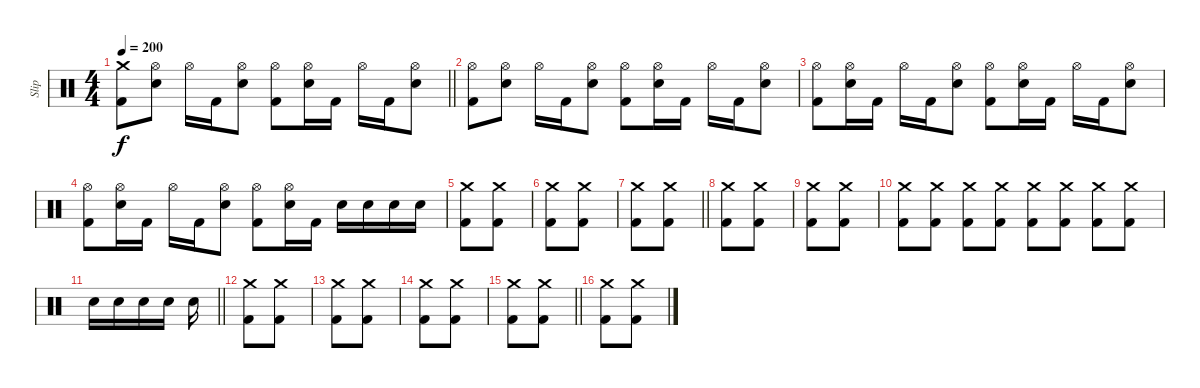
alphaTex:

\track ("Slip" "Slip") {instrument percussion}
\staff {score}
\articulation defaults
\ts (4 4)
\tempo 200
\clef neutral
\barLineRight lightlight
\ks c
("Kick (hit) 2" "Crash medium (hit)").8{dy f} ("Electric Snare (hit)" "Hi-Hat (open)").8 "Hi-Hat (open)".16 "Kick (hit) 2".16 ("Electric Snare (hit)" "Hi-Hat (open)").8 ("Kick (hit) 2" "Hi-Hat (open)").8 ("Electric Snare (hit)" "Hi-Hat (open)").16 "Kick (hit) 2".16 "Hi-Hat (open)".16 "Kick (hit) 2".16 ("Electric Snare (hit)" "Hi-Hat (open)").8 |
("Kick (hit) 2" "Hi-Hat (open)").8 ("Electric Snare (hit)" "Hi-Hat (open)").8 "Hi-Hat (open)".16 "Kick (hit) 2".16 ("Electric Snare (hit)" "Hi-Hat (open)").8 ("Kick (hit) 2" "Hi-Hat (open)").8 ("Electric Snare (hit)" "Hi-Hat (open)").16 "Kick (hit) 2".16 "Hi-Hat (open)".16 "Kick (hit) 2".16 ("Electric Snare (hit)" "Hi-Hat (open)").8 |
("Kick (hit) 2" "Hi-Hat (open)").8 ("Electric Snare (hit)" "Hi-Hat (open)").16 "Kick (hit) 2".16 "Hi-Hat (open)".16 "Kick (hit) 2".16 ("Electric Snare (hit)" "Hi-Hat (open)").8 ("Kick (hit) 2" "Hi-Hat (open)").8 ("Electric Snare (hit)" "Hi-Hat (open)").16 "Kick (hit) 2".16 "Hi-Hat (open)".16 "Kick (hit) 2".16 ("Electric Snare (hit)" "Hi-Hat (open)").8 |
("Kick (hit) 2" "Hi-Hat (open)").8 ("Electric Snare (hit)" "Hi-Hat (open)").16 "Kick (hit) 2".16 "Hi-Hat (open)".16 "Kick (hit) 2".16 ("Electric Snare (hit)" "Hi-Hat (open)").8 ("Kick (hit) 2" "Hi-Hat (open)").8 ("Electric Snare (hit)" "Hi-Hat (open)").16 "Kick (hit) 2".16 "Electric Snare (hit)".16 "Electric Snare (hit)".16 "Electric Snare (hit)".16 "Electric Snare (hit)".16 |
("Kick (hit) 2" "Crash medium (hit)").8 ("Kick (hit) 2" "Crash medium (hit)").8 |
("Kick (hit) 2" "Crash medium (hit)").8 ("Kick (hit) 2" "Crash medium (hit)").8 |
\barLineRight lightlight
("Kick (hit) 2" "Crash medium (hit)").8 ("Kick (hit) 2" "Crash medium (hit)").8 |
("Kick (hit) 2" "Crash medium (hit)").8 ("Kick (hit) 2" "Crash medium (hit)").8 |
("Kick (hit) 2" "Crash medium (hit)").8 ("Kick (hit) 2" "Crash medium (hit)").8 |
("Kick (hit) 2" "Crash medium (hit)").8 ("Kick (hit) 2" "Crash medium (hit)").8 ("Kick (hit) 2" "Crash medium (hit)").8 ("Kick (hit) 2" "Crash medium (hit)").8 ("Kick (hit) 2" "Crash medium (hit)").8 ("Kick (hit) 2" "Crash medium (hit)").8 ("Kick (hit) 2" "Crash medium (hit)").8 ("Kick (hit) 2" "Crash medium (hit)").8 |
\barLineRight lightlight "Electric Snare (hit)".16 "Electric Snare (hit)".16 "Electric Snare (hit)".16 "Electric Snare (hit)".16 "Electric Snare (hit)".16
|
("Kick (hit) 2" "Crash medium (hit)").8 ("Kick (hit) 2" "Crash medium (hit)").8 |
("Kick (hit) 2" "Crash medium (hit)").8 ("Kick (hit) 2" "Crash medium (hit)").8 |
("Kick (hit) 2" "Crash medium (hit)").8 ("Kick (hit) 2" "Crash medium (hit)").8 |
\barLineRight lightlight
("Kick (hit) 2" "Crash medium (hit)").8 ("Kick (hit) 2" "Crash medium (hit)").8 |
("Kick (hit) 2" "Crash medium (hit)").8 ("Kick (hit) 2" "Crash medium (hit)").8
